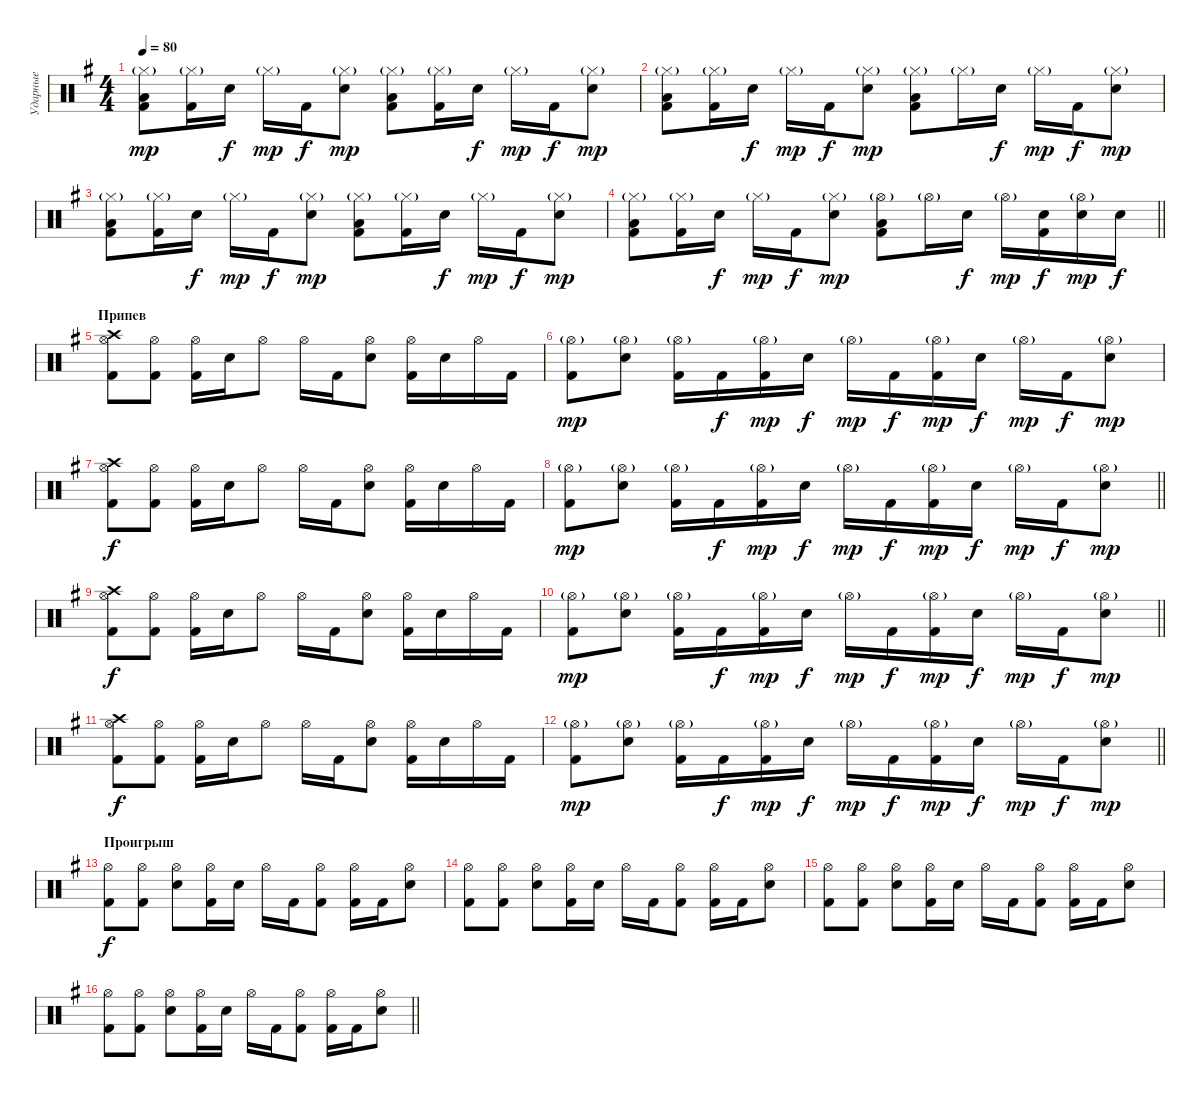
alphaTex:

\track ("Ударные" "Ударные") {instrument percussion}
\staff {score}
\articulation defaults
\ts (4 4)
\tempo 80
\clef neutral
\ks eminor
("Hi-Hat (closed)"{g} "Low Tom (hit)" "Kick (hit) 2").8{dy mp} ("Hi-Hat (closed)"{g} "Kick (hit) 2").16 "Electric Snare (hit)".16{dy f} "Hi-Hat (closed)"{g}.16{dy mp} "Kick (hit) 2".16{dy f} ("Hi-Hat (closed)"{g} "Electric Snare (hit)").8{dy mp} ("Hi-Hat (closed)"{g} "Low Tom (hit)" "Kick (hit) 2").8 ("Hi-Hat (closed)"{g} "Kick (hit) 2").16 "Electric Snare (hit)".16{dy f} "Hi-Hat (closed)"{g}.16{dy mp} "Kick (hit) 2".16{dy f} ("Hi-Hat (closed)"{g} "Electric Snare (hit)").8{dy mp} |
("Hi-Hat (closed)"{g} "Low Tom (hit)" "Kick (hit) 2").8 ("Hi-Hat (closed)"{g} "Kick (hit) 2").16 "Electric Snare (hit)".16{dy f} "Hi-Hat (closed)"{g}.16{dy mp} "Kick (hit) 2".16{dy f} ("Hi-Hat (closed)"{g} "Electric Snare (hit)").8{dy mp} ("Hi-Hat (closed)"{g} "Low Tom (hit)" "Kick (hit) 2").8 "Hi-Hat (closed)"{g}.16 "Electric Snare (hit)".16{dy f} "Hi-Hat (closed)"{g}.16{dy mp} "Kick (hit) 2".16{dy f} ("Hi-Hat (closed)"{g} "Electric Snare (hit)").8{dy mp} |
("Hi-Hat (closed)"{g} "Low Tom (hit)" "Kick (hit) 2").8 ("Hi-Hat (closed)"{g} "Kick (hit) 2").16 "Electric Snare (hit)".16{dy f} "Hi-Hat (closed)"{g}.16{dy mp} "Kick (hit) 2".16{dy f} ("Hi-Hat (closed)"{g} "Electric Snare (hit)").8{dy mp} ("Hi-Hat (closed)"{g} "Low Tom (hit)" "Kick (hit) 2").8 ("Hi-Hat (closed)"{g} "Kick (hit) 2").16 "Electric Snare (hit)".16{dy f} "Hi-Hat (closed)"{g}.16{dy mp} "Kick (hit) 2".16{dy f} ("Hi-Hat (closed)"{g} "Electric Snare (hit)").8{dy mp} |
\barLineRight lightlight
("Hi-Hat (closed)"{g} "Low Tom (hit)" "Kick (hit) 2").8 ("Hi-Hat (closed)"{g} "Kick (hit) 2").16 "Electric Snare (hit)".16{dy f} "Hi-Hat (closed)"{g}.16{dy mp} "Kick (hit) 2".16{dy f} ("Hi-Hat (closed)"{g} "Electric Snare (hit)").8{dy mp} ("Hi-Hat (open)"{g} "Low Tom (hit)" "Kick (hit) 2").8 "Hi-Hat (open)"{g}.16 "Electric Snare (hit)".16{dy f} "Hi-Hat (open)"{g}.16{dy mp} ("Electric Snare (hit)" "Kick (hit) 2").16{dy f} ("Hi-Hat (open)"{g} "Electric Snare (hit)").16{dy mp} "Electric Snare (hit)".16{dy f} |
\section ("" "Припев")
("Crash high (hit)" "Hi-Hat (open)" "Kick (hit) 2").8 ("Hi-Hat (open)" "Kick (hit) 2").8 ("Hi-Hat (open)" "Kick (hit) 2").16 "Electric Snare (hit)".16 "Hi-Hat (open)".8 "Hi-Hat (open)".16 "Kick (hit) 2".16 ("Hi-Hat (open)" "Electric Snare (hit)").8 ("Hi-Hat (open)" "Kick (hit) 2").16 "Electric Snare (hit)".16 "Hi-Hat (open)".16 "Kick (hit) 2".16 |
("Hi-Hat (open)"{g} "Kick (hit) 2").8{dy mp} ("Hi-Hat (open)"{g} "Electric Snare (hit)").8 ("Hi-Hat (open)"{g} "Kick (hit) 2").16 "Kick (hit) 2".16{dy f} ("Hi-Hat (open)"{g} "Kick (hit) 2").16{dy mp} "Electric Snare (hit)".16{dy f} "Hi-Hat (open)"{g}.16{dy mp} "Kick (hit) 2".16{dy f} ("Hi-Hat (open)"{g} "Kick (hit) 2").16{dy mp} "Electric Snare (hit)".16{dy f} "Hi-Hat (open)"{g}.16{dy mp} "Kick (hit) 2".16{dy f} ("Hi-Hat (open)"{g} "Electric Snare (hit)").8{dy mp} |
("Crash high (hit)" "Hi-Hat (open)" "Kick (hit) 2").8{dy f} ("Hi-Hat (open)" "Kick (hit) 2").8 ("Hi-Hat (open)" "Kick (hit) 2").16 "Electric Snare (hit)".16 "Hi-Hat (open)".8 "Hi-Hat (open)".16 "Kick (hit) 2".16 ("Hi-Hat (open)" "Electric Snare (hit)").8 ("Hi-Hat (open)" "Kick (hit) 2").16 "Electric Snare (hit)".16 "Hi-Hat (open)".16 "Kick (hit) 2".16 |
\barLineRight lightlight
("Hi-Hat (open)"{g} "Kick (hit) 2").8{dy mp} ("Hi-Hat (open)"{g} "Electric Snare (hit)").8 ("Hi-Hat (open)"{g} "Kick (hit) 2").16 "Kick (hit) 2".16{dy f} ("Hi-Hat (open)"{g} "Kick (hit) 2").16{dy mp} "Electric Snare (hit)".16{dy f} "Hi-Hat (open)"{g}.16{dy mp} "Kick (hit) 2".16{dy f} ("Hi-Hat (open)"{g} "Kick (hit) 2").16{dy mp} "Electric Snare (hit)".16{dy f} "Hi-Hat (open)"{g}.16{dy mp} "Kick (hit) 2".16{dy f} ("Hi-Hat (open)"{g} "Electric Snare (hit)").8{dy mp} |
("Crash high (hit)" "Hi-Hat (open)" "Kick (hit) 2").8{dy f} ("Hi-Hat (open)" "Kick (hit) 2").8 ("Hi-Hat (open)" "Kick (hit) 2").16 "Electric Snare (hit)".16 "Hi-Hat (open)".8 "Hi-Hat (open)".16 "Kick (hit) 2".16 ("Hi-Hat (open)" "Electric Snare (hit)").8 ("Hi-Hat (open)" "Kick (hit) 2").16 "Electric Snare (hit)".16 "Hi-Hat (open)".16 "Kick (hit) 2".16 |
\barLineRight lightlight
("Hi-Hat (open)"{g} "Kick (hit) 2").8{dy mp} ("Hi-Hat (open)"{g} "Electric Snare (hit)").8 ("Hi-Hat (open)"{g} "Kick (hit) 2").16 "Kick (hit) 2".16{dy f} ("Hi-Hat (open)"{g} "Kick (hit) 2").16{dy mp} "Electric Snare (hit)".16{dy f} "Hi-Hat (open)"{g}.16{dy mp} "Kick (hit) 2".16{dy f} ("Hi-Hat (open)"{g} "Kick (hit) 2").16{dy mp} "Electric Snare (hit)".16{dy f} "Hi-Hat (open)"{g}.16{dy mp} "Kick (hit) 2".16{dy f} ("Hi-Hat (open)"{g} "Electric Snare (hit)").8{dy mp} |
("Crash high (hit)" "Hi-Hat (open)" "Kick (hit) 2").8{dy f} ("Hi-Hat (open)" "Kick (hit) 2").8 ("Hi-Hat (open)" "Kick (hit) 2").16 "Electric Snare (hit)".16 "Hi-Hat (open)".8 "Hi-Hat (open)".16 "Kick (hit) 2".16 ("Hi-Hat (open)" "Electric Snare (hit)").8 ("Hi-Hat (open)" "Kick (hit) 2").16 "Electric Snare (hit)".16 "Hi-Hat (open)".16 "Kick (hit) 2".16 |
\barLineRight lightlight
("Hi-Hat (open)"{g} "Kick (hit) 2").8{dy mp} ("Hi-Hat (open)"{g} "Electric Snare (hit)").8 ("Hi-Hat (open)"{g} "Kick (hit) 2").16 "Kick (hit) 2".16{dy f} ("Hi-Hat (open)"{g} "Kick (hit) 2").16{dy mp} "Electric Snare (hit)".16{dy f} "Hi-Hat (open)"{g}.16{dy mp} "Kick (hit) 2".16{dy f} ("Hi-Hat (open)"{g} "Kick (hit) 2").16{dy mp} "Electric Snare (hit)".16{dy f} "Hi-Hat (open)"{g}.16{dy mp} "Kick (hit) 2".16{dy f} ("Hi-Hat (open)"{g} "Electric Snare (hit)").8{dy mp} |
\section ("" "Проигрыш")
("Hi-Hat (open)" "Kick (hit) 2").8{dy f} ("Hi-Hat (open)" "Kick (hit) 2").8 ("Hi-Hat (open)" "Electric Snare (hit)").8 ("Hi-Hat (open)" "Kick (hit) 2").16 "Electric Snare (hit)".16 "Hi-Hat (open)".16 "Kick (hit) 2".16 ("Hi-Hat (open)" "Kick (hit) 2").8 ("Hi-Hat (open)" "Kick (hit) 2").16 "Kick (hit) 2".16 ("Hi-Hat (open)" "Electric Snare (hit)").8 |
("Hi-Hat (open)" "Kick (hit) 2").8 ("Hi-Hat (open)" "Kick (hit) 2").8 ("Hi-Hat (open)" "Electric Snare (hit)").8 ("Hi-Hat (open)" "Kick (hit) 2").16 "Electric Snare (hit)".16 "Hi-Hat (open)".16 "Kick (hit) 2".16 ("Hi-Hat (open)" "Kick (hit) 2").8 ("Hi-Hat (open)" "Kick (hit) 2").16 "Kick (hit) 2".16 ("Hi-Hat (open)" "Electric Snare (hit)").8 |
("Hi-Hat (open)" "Kick (hit) 2").8 ("Hi-Hat (open)" "Kick (hit) 2").8 ("Hi-Hat (open)" "Electric Snare (hit)").8 ("Hi-Hat (open)" "Kick (hit) 2").16 "Electric Snare (hit)".16 "Hi-Hat (open)".16 "Kick (hit) 2".16 ("Hi-Hat (open)" "Kick (hit) 2").8 ("Hi-Hat (open)" "Kick (hit) 2").16 "Kick (hit) 2".16 ("Hi-Hat (open)" "Electric Snare (hit)").8 |
\barLineRight lightlight
("Hi-Hat (open)" "Kick (hit) 2").8 ("Hi-Hat (open)" "Kick (hit) 2").8 ("Hi-Hat (open)" "Electric Snare (hit)").8 ("Hi-Hat (open)" "Kick (hit) 2").16 "Electric Snare (hit)".16 "Hi-Hat (open)".16 "Kick (hit) 2".16 ("Hi-Hat (open)" "Kick (hit) 2").8 ("Hi-Hat (open)" "Kick (hit) 2").16 "Kick (hit) 2".16 ("Hi-Hat (open)" "Electric Snare (hit)").8
